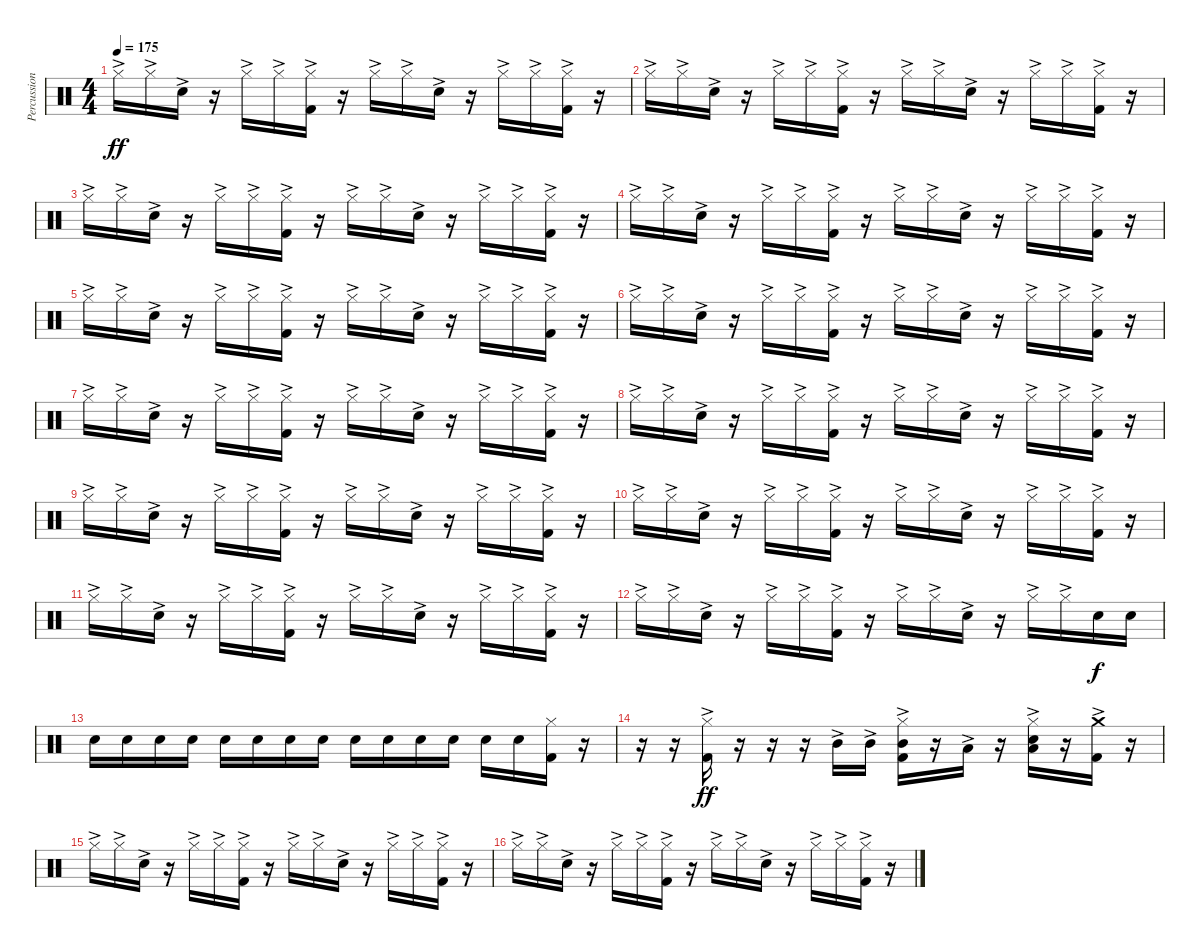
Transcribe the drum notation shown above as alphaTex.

\track ("Percussion" "Percussion") {instrument percussion}
\staff {score}
\articulation defaults
\ts (4 4)
\tempo 175
\clef neutral
\ks c "Hi-Hat (closed)"{ac}.16{dy ff} "Hi-Hat (closed)"{ac}.16 "Snare (hit) 2"{ac}.16
r.16 "Hi-Hat (closed)"{ac}.16 "Hi-Hat (closed)"{ac}.16 ("Hi-Hat (closed)"{ac} "Kick (hit) 2"{ac}).16 r.16 "Hi-Hat (closed)"{ac}.16 "Hi-Hat (closed)"{ac}.16 "Snare (hit) 2"{ac}.16 r.16 "Hi-Hat (closed)"{ac}.16 "Hi-Hat (closed)"{ac}.16 ("Hi-Hat (closed)"{ac} "Kick (hit) 2"{ac}).16 r.16 |
"Hi-Hat (closed)"{ac}.16 "Hi-Hat (closed)"{ac}.16 "Snare (hit) 2"{ac}.16 r.16 "Hi-Hat (closed)"{ac}.16 "Hi-Hat (closed)"{ac}.16 ("Hi-Hat (closed)"{ac} "Kick (hit) 2"{ac}).16 r.16 "Hi-Hat (closed)"{ac}.16 "Hi-Hat (closed)"{ac}.16 "Snare (hit) 2"{ac}.16 r.16 "Hi-Hat (closed)"{ac}.16 "Hi-Hat (closed)"{ac}.16 ("Hi-Hat (closed)"{ac} "Kick (hit) 2"{ac}).16 r.16 |
"Hi-Hat (closed)"{ac}.16 "Hi-Hat (closed)"{ac}.16 "Snare (hit) 2"{ac}.16 r.16 "Hi-Hat (closed)"{ac}.16 "Hi-Hat (closed)"{ac}.16 ("Hi-Hat (closed)"{ac} "Kick (hit) 2"{ac}).16 r.16 "Hi-Hat (closed)"{ac}.16 "Hi-Hat (closed)"{ac}.16 "Snare (hit) 2"{ac}.16 r.16 "Hi-Hat (closed)"{ac}.16 "Hi-Hat (closed)"{ac}.16 ("Hi-Hat (closed)"{ac} "Kick (hit) 2"{ac}).16 r.16 |
"Hi-Hat (closed)"{ac}.16 "Hi-Hat (closed)"{ac}.16 "Snare (hit) 2"{ac}.16 r.16 "Hi-Hat (closed)"{ac}.16 "Hi-Hat (closed)"{ac}.16 ("Hi-Hat (closed)"{ac} "Kick (hit) 2"{ac}).16 r.16 "Hi-Hat (closed)"{ac}.16 "Hi-Hat (closed)"{ac}.16 "Snare (hit) 2"{ac}.16 r.16 "Hi-Hat (closed)"{ac}.16 "Hi-Hat (closed)"{ac}.16 ("Hi-Hat (closed)"{ac} "Kick (hit) 2"{ac}).16 r.16 |
"Hi-Hat (closed)"{ac}.16 "Hi-Hat (closed)"{ac}.16 "Snare (hit) 2"{ac}.16 r.16 "Hi-Hat (closed)"{ac}.16 "Hi-Hat (closed)"{ac}.16 ("Hi-Hat (closed)"{ac} "Kick (hit) 2"{ac}).16 r.16 "Hi-Hat (closed)"{ac}.16 "Hi-Hat (closed)"{ac}.16 "Snare (hit) 2"{ac}.16 r.16 "Hi-Hat (closed)"{ac}.16 "Hi-Hat (closed)"{ac}.16 ("Hi-Hat (closed)"{ac} "Kick (hit) 2"{ac}).16 r.16 |
"Hi-Hat (closed)"{ac}.16 "Hi-Hat (closed)"{ac}.16 "Snare (hit) 2"{ac}.16 r.16 "Hi-Hat (closed)"{ac}.16 "Hi-Hat (closed)"{ac}.16 ("Hi-Hat (closed)"{ac} "Kick (hit) 2"{ac}).16 r.16 "Hi-Hat (closed)"{ac}.16 "Hi-Hat (closed)"{ac}.16 "Snare (hit) 2"{ac}.16 r.16 "Hi-Hat (closed)"{ac}.16 "Hi-Hat (closed)"{ac}.16 ("Hi-Hat (closed)"{ac} "Kick (hit) 2"{ac}).16 r.16 |
"Hi-Hat (closed)"{ac}.16 "Hi-Hat (closed)"{ac}.16 "Snare (hit) 2"{ac}.16 r.16 "Hi-Hat (closed)"{ac}.16 "Hi-Hat (closed)"{ac}.16 ("Hi-Hat (closed)"{ac} "Kick (hit) 2"{ac}).16 r.16 "Hi-Hat (closed)"{ac}.16 "Hi-Hat (closed)"{ac}.16 "Snare (hit) 2"{ac}.16 r.16 "Hi-Hat (closed)"{ac}.16 "Hi-Hat (closed)"{ac}.16 ("Hi-Hat (closed)"{ac} "Kick (hit) 2"{ac}).16 r.16 |
"Hi-Hat (closed)"{ac}.16 "Hi-Hat (closed)"{ac}.16 "Snare (hit) 2"{ac}.16 r.16 "Hi-Hat (closed)"{ac}.16 "Hi-Hat (closed)"{ac}.16 ("Hi-Hat (closed)"{ac} "Kick (hit) 2"{ac}).16 r.16 "Hi-Hat (closed)"{ac}.16 "Hi-Hat (closed)"{ac}.16 "Snare (hit) 2"{ac}.16 r.16 "Hi-Hat (closed)"{ac}.16 "Hi-Hat (closed)"{ac}.16 ("Hi-Hat (closed)"{ac} "Kick (hit) 2"{ac}).16 r.16 |
"Hi-Hat (closed)"{ac}.16 "Hi-Hat (closed)"{ac}.16 "Snare (hit) 2"{ac}.16 r.16 "Hi-Hat (closed)"{ac}.16 "Hi-Hat (closed)"{ac}.16 ("Hi-Hat (closed)"{ac} "Kick (hit) 2"{ac}).16 r.16 "Hi-Hat (closed)"{ac}.16 "Hi-Hat (closed)"{ac}.16 "Snare (hit) 2"{ac}.16 r.16 "Hi-Hat (closed)"{ac}.16 "Hi-Hat (closed)"{ac}.16 ("Hi-Hat (closed)"{ac} "Kick (hit) 2"{ac}).16 r.16 |
"Hi-Hat (closed)"{ac}.16 "Hi-Hat (closed)"{ac}.16 "Snare (hit) 2"{ac}.16 r.16 "Hi-Hat (closed)"{ac}.16 "Hi-Hat (closed)"{ac}.16 ("Hi-Hat (closed)"{ac} "Kick (hit) 2"{ac}).16 r.16 "Hi-Hat (closed)"{ac}.16 "Hi-Hat (closed)"{ac}.16 "Snare (hit) 2"{ac}.16 r.16 "Hi-Hat (closed)"{ac}.16 "Hi-Hat (closed)"{ac}.16 ("Hi-Hat (closed)"{ac} "Kick (hit) 2"{ac}).16 r.16 |
"Hi-Hat (closed)"{ac}.16 "Hi-Hat (closed)"{ac}.16 "Snare (hit) 2"{ac}.16 r.16 "Hi-Hat (closed)"{ac}.16 "Hi-Hat (closed)"{ac}.16 ("Hi-Hat (closed)"{ac} "Kick (hit) 2"{ac}).16 r.16 "Hi-Hat (closed)"{ac}.16 "Hi-Hat (closed)"{ac}.16 "Snare (hit) 2"{ac}.16 r.16 "Hi-Hat (closed)"{ac}.16 "Hi-Hat (closed)"{ac}.16 ("Hi-Hat (closed)"{ac} "Kick (hit) 2"{ac}).16 r.16 |
"Hi-Hat (closed)"{ac}.16 "Hi-Hat (closed)"{ac}.16 "Snare (hit) 2"{ac}.16 r.16 "Hi-Hat (closed)"{ac}.16 "Hi-Hat (closed)"{ac}.16 ("Hi-Hat (closed)"{ac} "Kick (hit) 2"{ac}).16 r.16 "Hi-Hat (closed)"{ac}.16 "Hi-Hat (closed)"{ac}.16 "Snare (hit) 2"{ac}.16 r.16 "Hi-Hat (closed)"{ac}.16 "Hi-Hat (closed)"{ac}.16 "Snare (hit) 2".16{dy f} "Snare (hit) 2".16 |
"Snare (hit) 2".16 "Snare (hit) 2".16 "Snare (hit) 2".16 "Snare (hit) 2".16 "Snare (hit) 2".16 "Snare (hit) 2".16 "Snare (hit) 2".16 "Snare (hit) 2".16 "Snare (hit) 2".16 "Snare (hit) 2".16 "Snare (hit) 2".16 "Snare (hit) 2".16 "Snare (hit) 2".16 "Snare (hit) 2".16 ("Hi-Hat (closed)" "Kick (hit) 2").16 r.16 |
r.16 r.16 ("Hi-Hat (closed)"{ac} "Kick (hit) 2"{ac}).16{dy ff} r.16 r.16 r.16 "Mid Tom (hit)"{ac}.16 "Mid Tom (hit)"{ac}.16 ("Hi-Hat (closed)"{ac} "Mid Tom (hit)"{ac} "Kick (hit) 2"{ac}).16 r.16 "Low Tom (hit)"{ac}.16 r.16 ("Hi-Hat (closed)"{ac} "Low Tom (hit)"{ac} "Snare (hit)"{ac}).16 r.16 ("Crash medium (hit)"{ac} "Kick (hit) 2"{ac}).16 r.16 |
"Hi-Hat (closed)"{ac}.16 "Hi-Hat (closed)"{ac}.16 "Snare (hit) 2"{ac}.16 r.16 "Hi-Hat (closed)"{ac}.16 "Hi-Hat (closed)"{ac}.16 ("Hi-Hat (closed)"{ac} "Kick (hit) 2"{ac}).16 r.16 "Hi-Hat (closed)"{ac}.16 "Hi-Hat (closed)"{ac}.16 "Snare (hit) 2"{ac}.16 r.16 "Hi-Hat (closed)"{ac}.16 "Hi-Hat (closed)"{ac}.16 ("Hi-Hat (closed)"{ac} "Kick (hit) 2"{ac}).16 r.16 |
"Hi-Hat (closed)"{ac}.16 "Hi-Hat (closed)"{ac}.16 "Snare (hit) 2"{ac}.16 r.16 "Hi-Hat (closed)"{ac}.16 "Hi-Hat (closed)"{ac}.16 ("Hi-Hat (closed)"{ac} "Kick (hit) 2"{ac}).16 r.16 "Hi-Hat (closed)"{ac}.16 "Hi-Hat (closed)"{ac}.16 "Snare (hit) 2"{ac}.16 r.16 "Hi-Hat (closed)"{ac}.16 "Hi-Hat (closed)"{ac}.16 ("Hi-Hat (closed)"{ac} "Kick (hit) 2"{ac}).16 r.16
